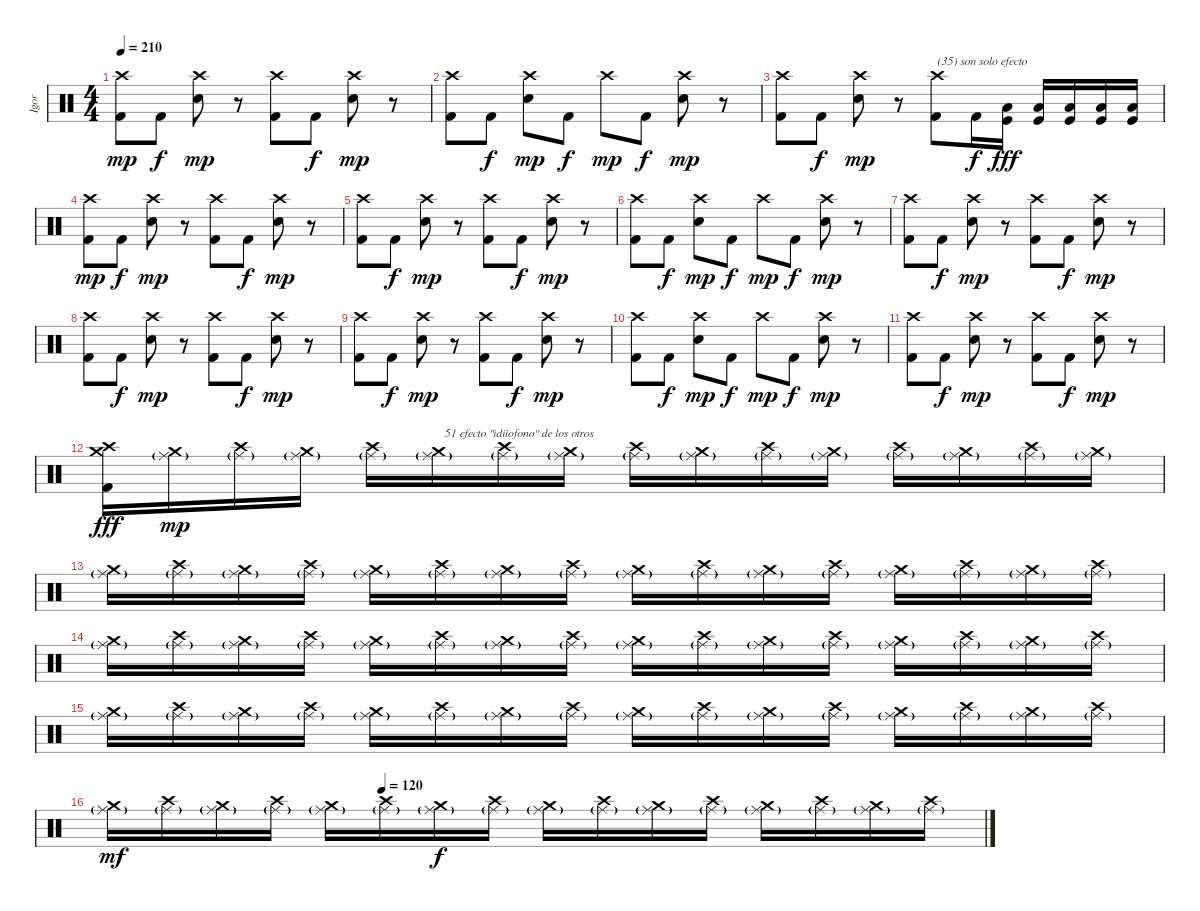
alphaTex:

\track ("Igor" "Igor") {instrument percussion}
\staff {score}
\articulation defaults
\ts (4 4)
\tempo 210
\clef neutral
\ks c
("Crash high (hit)" "Kick (hit) 2").8{dy mp} "Kick (hit) 2".8{dy f} ("Crash high (hit)" "Electric Snare (hit)").8{dy mp} r.8 ("Crash high (hit)" "Kick (hit) 2").8 "Kick (hit) 2".8{dy f} ("Crash high (hit)" "Electric Snare (hit)").8{dy mp} r.8 |
("Crash high (hit)" "Kick (hit) 2").8 "Kick (hit) 2".8{dy f} ("Crash high (hit)" "Electric Snare (hit)").8{dy mp} "Kick (hit) 2".8{dy f} "Crash high (hit)".8{dy mp} "Kick (hit) 2".8{dy f} ("Crash high (hit)" "Electric Snare (hit)").8{dy mp} r.8 |
("Crash high (hit)" "Kick (hit) 2").8 "Kick (hit) 2".8{dy f} ("Crash high (hit)" "Electric Snare (hit)").8{dy mp} r.8 ("Crash high (hit)" "Kick (hit) 2").8{txt "(35) son solo efecto"} "Kick (hit) 2".16{dy f} ("Low Tom (hit)" "Kick (hit)").16{dy fff} ("Low Tom (hit)" "Kick (hit)").16 ("Low Tom (hit)" "Kick (hit)").16 ("Low Tom (hit)" "Kick (hit)").16 ("Low Tom (hit)" "Kick (hit)").16 |
("Crash high (hit)" "Kick (hit) 2").8{dy mp} "Kick (hit) 2".8{dy f} ("Crash high (hit)" "Electric Snare (hit)").8{dy mp} r.8 ("Crash high (hit)" "Kick (hit) 2").8 "Kick (hit) 2".8{dy f} ("Crash high (hit)" "Electric Snare (hit)").8{dy mp} r.8 |
("Crash high (hit)" "Kick (hit) 2").8 "Kick (hit) 2".8{dy f} ("Crash high (hit)" "Electric Snare (hit)").8{dy mp} r.8 ("Crash high (hit)" "Kick (hit) 2").8 "Kick (hit) 2".8{dy f} ("Crash high (hit)" "Electric Snare (hit)").8{dy mp} r.8 |
("Crash high (hit)" "Kick (hit) 2").8 "Kick (hit) 2".8{dy f} ("Crash high (hit)" "Electric Snare (hit)").8{dy mp} "Kick (hit) 2".8{dy f} "Crash high (hit)".8{dy mp} "Kick (hit) 2".8{dy f} ("Crash high (hit)" "Electric Snare (hit)").8{dy mp} r.8 |
("Crash high (hit)" "Kick (hit) 2").8 "Kick (hit) 2".8{dy f} ("Crash high (hit)" "Electric Snare (hit)").8{dy mp} r.8 ("Crash high (hit)" "Kick (hit) 2").8 "Kick (hit) 2".8{dy f} ("Crash high (hit)" "Electric Snare (hit)").8{dy mp} r.8 |
("Crash high (hit)" "Kick (hit) 2").8 "Kick (hit) 2".8{dy f} ("Crash high (hit)" "Electric Snare (hit)").8{dy mp} r.8 ("Crash high (hit)" "Kick (hit) 2").8 "Kick (hit) 2".8{dy f} ("Crash high (hit)" "Electric Snare (hit)").8{dy mp} r.8 |
("Crash high (hit)" "Kick (hit) 2").8 "Kick (hit) 2".8{dy f} ("Crash high (hit)" "Electric Snare (hit)").8{dy mp} r.8 ("Crash high (hit)" "Kick (hit) 2").8 "Kick (hit) 2".8{dy f} ("Crash high (hit)" "Electric Snare (hit)").8{dy mp} r.8 |
("Crash high (hit)" "Kick (hit) 2").8 "Kick (hit) 2".8{dy f} ("Crash high (hit)" "Electric Snare (hit)").8{dy mp} "Kick (hit) 2".8{dy f} "Crash high (hit)".8{dy mp} "Kick (hit) 2".8{dy f} ("Crash high (hit)" "Electric Snare (hit)").8{dy mp} r.8 |
("Crash high (hit)" "Kick (hit) 2").8 "Kick (hit) 2".8{dy f} ("Crash high (hit)" "Electric Snare (hit)").8{dy mp} r.8 ("Crash high (hit)" "Kick (hit) 2").8 "Kick (hit) 2".8{dy f} ("Crash high (hit)" "Electric Snare (hit)").8{dy mp} r.8 |
("Crash medium (hit)" "Crash high (hit)" "Kick (hit) 2").16{dy fff volume 11} ("Crash medium (hit)" "Ride (middle)"{g}).16{dy mp} ("Crash high (hit)" "Ride (middle)"{g}).16 ("Crash medium (hit)" "Ride (middle)"{g}).16 ("Crash high (hit)" "Ride (middle)"{g}).16 ("Crash medium (hit)" "Ride (middle)"{g}).16{txt "  51 efecto \"idiiofono\" de los otros"} ("Crash high (hit)" "Ride (middle)"{g}).16 ("Crash medium (hit)" "Ride (middle)"{g}).16 ("Crash high (hit)" "Ride (middle)"{g}).16 ("Crash medium (hit)" "Ride (middle)"{g}).16 ("Crash high (hit)" "Ride (middle)"{g}).16 ("Crash medium (hit)" "Ride (middle)"{g}).16 ("Crash high (hit)" "Ride (middle)"{g}).16 ("Crash medium (hit)" "Ride (middle)"{g}).16 ("Crash high (hit)" "Ride (middle)"{g}).16 ("Crash medium (hit)" "Ride (middle)"{g}).16 |
("Crash medium (hit)" "Ride (middle)"{g}).16 ("Crash high (hit)" "Ride (middle)"{g}).16 ("Crash medium (hit)" "Ride (middle)"{g}).16 ("Crash high (hit)" "Ride (middle)"{g}).16 ("Crash medium (hit)" "Ride (middle)"{g}).16 ("Crash high (hit)" "Ride (middle)"{g}).16 ("Crash medium (hit)" "Ride (middle)"{g}).16 ("Crash high (hit)" "Ride (middle)"{g}).16 ("Crash medium (hit)" "Ride (middle)"{g}).16 ("Crash high (hit)" "Ride (middle)"{g}).16 ("Crash medium (hit)" "Ride (middle)"{g}).16 ("Crash high (hit)" "Ride (middle)"{g}).16 ("Crash medium (hit)" "Ride (middle)"{g}).16 ("Crash high (hit)" "Ride (middle)"{g}).16 ("Crash medium (hit)" "Ride (middle)"{g}).16 ("Crash high (hit)" "Ride (middle)"{g}).16 |
("Crash medium (hit)" "Ride (middle)"{g}).16 ("Crash high (hit)" "Ride (middle)"{g}).16 ("Crash medium (hit)" "Ride (middle)"{g}).16 ("Crash high (hit)" "Ride (middle)"{g}).16 ("Crash medium (hit)" "Ride (middle)"{g}).16 ("Crash high (hit)" "Ride (middle)"{g}).16 ("Crash medium (hit)" "Ride (middle)"{g}).16 ("Crash high (hit)" "Ride (middle)"{g}).16 ("Crash medium (hit)" "Ride (middle)"{g}).16{volume 5} ("Crash high (hit)" "Ride (middle)"{g}).16 ("Crash medium (hit)" "Ride (middle)"{g}).16 ("Crash high (hit)" "Ride (middle)"{g}).16 ("Crash medium (hit)" "Ride (middle)"{g}).16 ("Crash high (hit)" "Ride (middle)"{g}).16 ("Crash medium (hit)" "Ride (middle)"{g}).16 ("Crash high (hit)" "Ride (middle)"{g}).16 |
("Crash medium (hit)" "Ride (middle)"{g}).16 ("Crash high (hit)" "Ride (middle)"{g}).16 ("Crash medium (hit)" "Ride (middle)"{g}).16 ("Crash high (hit)" "Ride (middle)"{g}).16 ("Crash medium (hit)" "Ride (middle)"{g}).16 ("Crash high (hit)" "Ride (middle)"{g}).16 ("Crash medium (hit)" "Ride (middle)"{g}).16 ("Crash high (hit)" "Ride (middle)"{g}).16 ("Crash medium (hit)" "Ride (middle)"{g}).16 ("Crash high (hit)" "Ride (middle)"{g}).16 ("Crash medium (hit)" "Ride (middle)"{g}).16 ("Crash high (hit)" "Ride (middle)"{g}).16 ("Crash medium (hit)" "Ride (middle)"{g}).16 ("Crash high (hit)" "Ride (middle)"{g}).16 ("Crash medium (hit)" "Ride (middle)"{g}).16 ("Crash high (hit)" "Ride (middle)"{g}).16 |
\tempo (120 0.3125)
("Crash medium (hit)" "Ride (middle)"{g}).16{dy mf} ("Crash high (hit)" "Ride (middle)"{g}).16 ("Crash medium (hit)" "Ride (middle)"{g}).16 ("Crash high (hit)" "Ride (middle)"{g}).16 ("Crash medium (hit)" "Ride (middle)"{g}).16 ("Crash high (hit)" "Ride (middle)"{g}).16 ("Crash medium (hit)" "Ride (middle)"{g}).16{dy f} ("Crash high (hit)" "Ride (middle)"{g}).16 ("Crash medium (hit)" "Ride (middle)"{g}).16 ("Crash high (hit)" "Ride (middle)"{g}).16 ("Crash medium (hit)" "Ride (middle)"{g}).16 ("Crash high (hit)" "Ride (middle)"{g}).16 ("Crash medium (hit)" "Ride (middle)"{g}).16 ("Crash high (hit)" "Ride (middle)"{g}).16 ("Crash medium (hit)" "Ride (middle)"{g}).16 ("Crash high (hit)" "Ride (middle)"{g}).16
